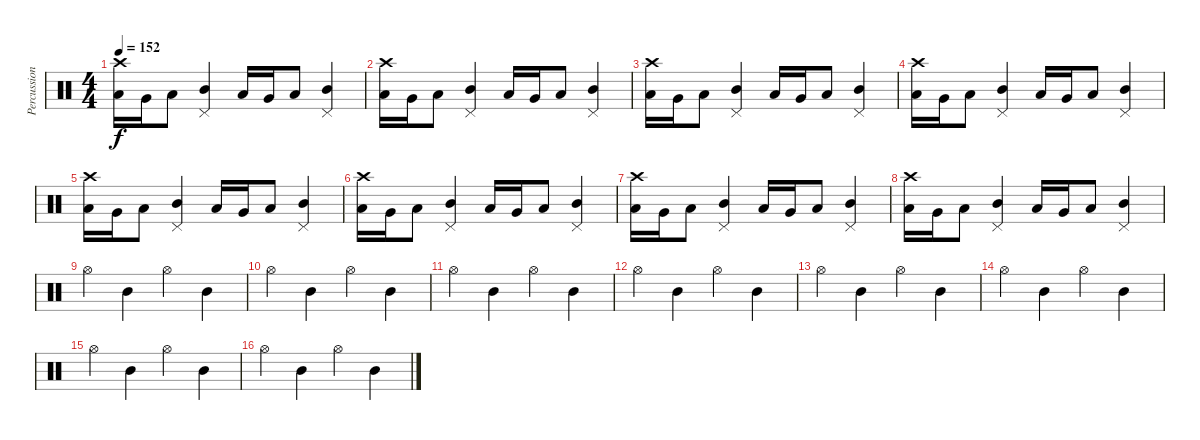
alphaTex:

\track ("Percussion" "Percussion") {instrument percussion}
\staff {score}
\articulation defaults
\ts (4 4)
\tempo 152
\clef neutral
\ks c
("Low Tom (hit)" "Crash high (hit)").16{dy f} "Very Low Tom (hit)".16 "Low Floor Tom (hit)".8 ("Mid Tom (hit)" "Pedal Hi-Hat (hit)").4 "Low Tom (hit)".16 "Very Low Tom (hit)".16 "Low Floor Tom (hit)".8 ("Mid Tom (hit)" "Pedal Hi-Hat (hit)").4 |
("Low Tom (hit)" "Crash high (hit)").16 "Very Low Tom (hit)".16 "Low Floor Tom (hit)".8 ("Mid Tom (hit)" "Pedal Hi-Hat (hit)").4 "Low Tom (hit)".16 "Very Low Tom (hit)".16 "Low Floor Tom (hit)".8 ("Mid Tom (hit)" "Pedal Hi-Hat (hit)").4 |
("Low Tom (hit)" "Crash high (hit)").16 "Very Low Tom (hit)".16 "Low Floor Tom (hit)".8 ("Mid Tom (hit)" "Pedal Hi-Hat (hit)").4 "Low Tom (hit)".16 "Very Low Tom (hit)".16 "Low Floor Tom (hit)".8 ("Mid Tom (hit)" "Pedal Hi-Hat (hit)").4 |
("Low Tom (hit)" "Crash high (hit)").16 "Very Low Tom (hit)".16 "Low Floor Tom (hit)".8 ("Mid Tom (hit)" "Pedal Hi-Hat (hit)").4 "Low Tom (hit)".16 "Very Low Tom (hit)".16 "Low Floor Tom (hit)".8 ("Mid Tom (hit)" "Pedal Hi-Hat (hit)").4 |
("Low Tom (hit)" "Crash high (hit)").16 "Very Low Tom (hit)".16 "Low Floor Tom (hit)".8 ("Mid Tom (hit)" "Pedal Hi-Hat (hit)").4 "Low Tom (hit)".16 "Very Low Tom (hit)".16 "Low Floor Tom (hit)".8 ("Mid Tom (hit)" "Pedal Hi-Hat (hit)").4 |
("Low Tom (hit)" "Crash high (hit)").16 "Very Low Tom (hit)".16 "Low Floor Tom (hit)".8 ("Mid Tom (hit)" "Pedal Hi-Hat (hit)").4 "Low Tom (hit)".16 "Very Low Tom (hit)".16 "Low Floor Tom (hit)".8 ("Mid Tom (hit)" "Pedal Hi-Hat (hit)").4 |
("Low Tom (hit)" "Crash high (hit)").16 "Very Low Tom (hit)".16 "Low Floor Tom (hit)".8 ("Mid Tom (hit)" "Pedal Hi-Hat (hit)").4 "Low Tom (hit)".16 "Very Low Tom (hit)".16 "Low Floor Tom (hit)".8 ("Mid Tom (hit)" "Pedal Hi-Hat (hit)").4 |
("Low Tom (hit)" "Crash high (hit)").16 "Very Low Tom (hit)".16 "Low Floor Tom (hit)".8 ("Mid Tom (hit)" "Pedal Hi-Hat (hit)").4 "Low Tom (hit)".16 "Very Low Tom (hit)".16 "Low Floor Tom (hit)".8 ("Mid Tom (hit)" "Pedal Hi-Hat (hit)").4 |
"Hi-Hat (open)".4 "Mid Tom (hit)".4 "Hi-Hat (open)".4 "Mid Tom (hit)".4 |
"Hi-Hat (open)".4 "Mid Tom (hit)".4 "Hi-Hat (open)".4 "Mid Tom (hit)".4 |
"Hi-Hat (open)".4 "Mid Tom (hit)".4 "Hi-Hat (open)".4 "Mid Tom (hit)".4 |
"Hi-Hat (open)".4 "Mid Tom (hit)".4 "Hi-Hat (open)".4 "Mid Tom (hit)".4 |
"Hi-Hat (open)".4 "Mid Tom (hit)".4 "Hi-Hat (open)".4 "Mid Tom (hit)".4 |
"Hi-Hat (open)".4 "Mid Tom (hit)".4 "Hi-Hat (open)".4 "Mid Tom (hit)".4 |
"Hi-Hat (open)".4 "Mid Tom (hit)".4 "Hi-Hat (open)".4 "Mid Tom (hit)".4 |
"Hi-Hat (open)".4 "Mid Tom (hit)".4 "Hi-Hat (open)".4 "Mid Tom (hit)".4
